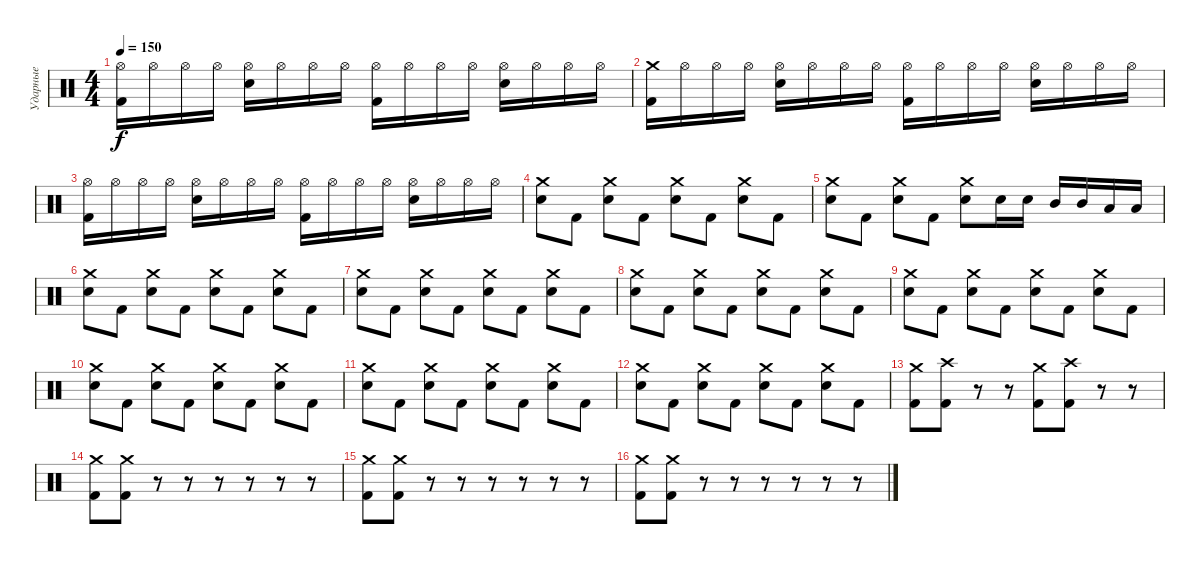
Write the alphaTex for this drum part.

\track ("Ударные" "Ударные") {instrument percussion}
\staff {score}
\articulation defaults
\ts (4 4)
\tempo 150
\clef neutral
\ks c
("Hi-Hat (open)" "Kick (hit) 2").16{dy f} "Hi-Hat (open)".16 "Hi-Hat (open)".16 "Hi-Hat (open)".16 ("Hi-Hat (open)" "Electric Snare (hit)").16 "Hi-Hat (open)".16 "Hi-Hat (open)".16 "Hi-Hat (open)".16 ("Hi-Hat (open)" "Kick (hit) 2").16 "Hi-Hat (open)".16 "Hi-Hat (open)".16 "Hi-Hat (open)".16 ("Hi-Hat (open)" "Electric Snare (hit)").16 "Hi-Hat (open)".16 "Hi-Hat (open)".16 "Hi-Hat (open)".16 |
("Crash medium (hit)" "Kick (hit) 2").16 "Hi-Hat (open)".16 "Hi-Hat (open)".16 "Hi-Hat (open)".16 ("Hi-Hat (open)" "Electric Snare (hit)").16 "Hi-Hat (open)".16 "Hi-Hat (open)".16 "Hi-Hat (open)".16 ("Hi-Hat (open)" "Kick (hit) 2").16 "Hi-Hat (open)".16 "Hi-Hat (open)".16 "Hi-Hat (open)".16 ("Hi-Hat (open)" "Electric Snare (hit)").16 "Hi-Hat (open)".16 "Hi-Hat (open)".16 "Hi-Hat (open)".16 |
("Hi-Hat (open)" "Kick (hit) 2").16 "Hi-Hat (open)".16 "Hi-Hat (open)".16 "Hi-Hat (open)".16 ("Hi-Hat (open)" "Electric Snare (hit)").16 "Hi-Hat (open)".16 "Hi-Hat (open)".16 "Hi-Hat (open)".16 ("Hi-Hat (open)" "Kick (hit) 2").16 "Hi-Hat (open)".16 "Hi-Hat (open)".16 "Hi-Hat (open)".16 ("Hi-Hat (open)" "Electric Snare (hit)").16 "Hi-Hat (open)".16 "Hi-Hat (open)".16 "Hi-Hat (open)".16 |
("Crash medium (hit)" "Electric Snare (hit)").8 "Kick (hit) 2".8 ("Crash medium (hit)" "Electric Snare (hit)").8 "Kick (hit) 2".8 ("Crash medium (hit)" "Electric Snare (hit)").8 "Kick (hit) 2".8 ("Crash medium (hit)" "Electric Snare (hit)").8 "Kick (hit) 2".8 |
("Crash medium (hit)" "Electric Snare (hit)").8 "Kick (hit) 2".8 ("Crash medium (hit)" "Electric Snare (hit)").8 "Kick (hit) 2".8 ("Crash medium (hit)" "Electric Snare (hit)").8 "Electric Snare (hit)".16 "Electric Snare (hit)".16 "Mid Tom (hit)".16 "Mid Tom (hit)".16 "Low Tom (hit)".16 "Low Tom (hit)".16 |
("Crash medium (hit)" "Electric Snare (hit)").8 "Kick (hit) 2".8 ("Crash medium (hit)" "Electric Snare (hit)").8 "Kick (hit) 2".8 ("Crash medium (hit)" "Electric Snare (hit)").8 "Kick (hit) 2".8 ("Crash medium (hit)" "Electric Snare (hit)").8 "Kick (hit) 2".8 |
("Crash medium (hit)" "Electric Snare (hit)").8 "Kick (hit) 2".8 ("Crash medium (hit)" "Electric Snare (hit)").8 "Kick (hit) 2".8 ("Crash medium (hit)" "Electric Snare (hit)").8 "Kick (hit) 2".8 ("Crash medium (hit)" "Electric Snare (hit)").8 "Kick (hit) 2".8 |
("Crash medium (hit)" "Electric Snare (hit)").8 "Kick (hit) 2".8 ("Crash medium (hit)" "Electric Snare (hit)").8 "Kick (hit) 2".8 ("Crash medium (hit)" "Electric Snare (hit)").8 "Kick (hit) 2".8 ("Crash medium (hit)" "Electric Snare (hit)").8 "Kick (hit) 2".8 |
("Crash medium (hit)" "Electric Snare (hit)").8 "Kick (hit) 2".8 ("Crash medium (hit)" "Electric Snare (hit)").8 "Kick (hit) 2".8 ("Crash medium (hit)" "Electric Snare (hit)").8 "Kick (hit) 2".8 ("Crash medium (hit)" "Electric Snare (hit)").8 "Kick (hit) 2".8 |
("Crash medium (hit)" "Electric Snare (hit)").8 "Kick (hit) 2".8 ("Crash medium (hit)" "Electric Snare (hit)").8 "Kick (hit) 2".8 ("Crash medium (hit)" "Electric Snare (hit)").8 "Kick (hit) 2".8 ("Crash medium (hit)" "Electric Snare (hit)").8 "Kick (hit) 2".8 |
("Crash medium (hit)" "Electric Snare (hit)").8 "Kick (hit) 2".8 ("Crash medium (hit)" "Electric Snare (hit)").8 "Kick (hit) 2".8 ("Crash medium (hit)" "Electric Snare (hit)").8 "Kick (hit) 2".8 ("Crash medium (hit)" "Electric Snare (hit)").8 "Kick (hit) 2".8 |
("Crash medium (hit)" "Electric Snare (hit)").8 "Kick (hit) 2".8 ("Crash medium (hit)" "Electric Snare (hit)").8 "Kick (hit) 2".8 ("Crash medium (hit)" "Electric Snare (hit)").8 "Kick (hit) 2".8 ("Crash medium (hit)" "Electric Snare (hit)").8 "Kick (hit) 2".8 |
("Crash medium (hit)" "Kick (hit) 2").8 ("Crash high (hit)" "Kick (hit) 2").8 r.8 r.8 ("Crash medium (hit)" "Kick (hit) 2").8 ("Crash high (hit)" "Kick (hit) 2").8 r.8 r.8 |
("Crash medium (hit)" "Kick (hit) 2").8 ("Crash medium (hit)" "Kick (hit) 2").8 r.8 r.8 r.8 r.8 r.8 r.8 |
("Crash medium (hit)" "Kick (hit) 2").8 ("Crash medium (hit)" "Kick (hit) 2").8 r.8 r.8 r.8 r.8 r.8 r.8 |
("Crash medium (hit)" "Kick (hit) 2").8 ("Crash medium (hit)" "Kick (hit) 2").8 r.8 r.8 r.8 r.8 r.8 r.8
